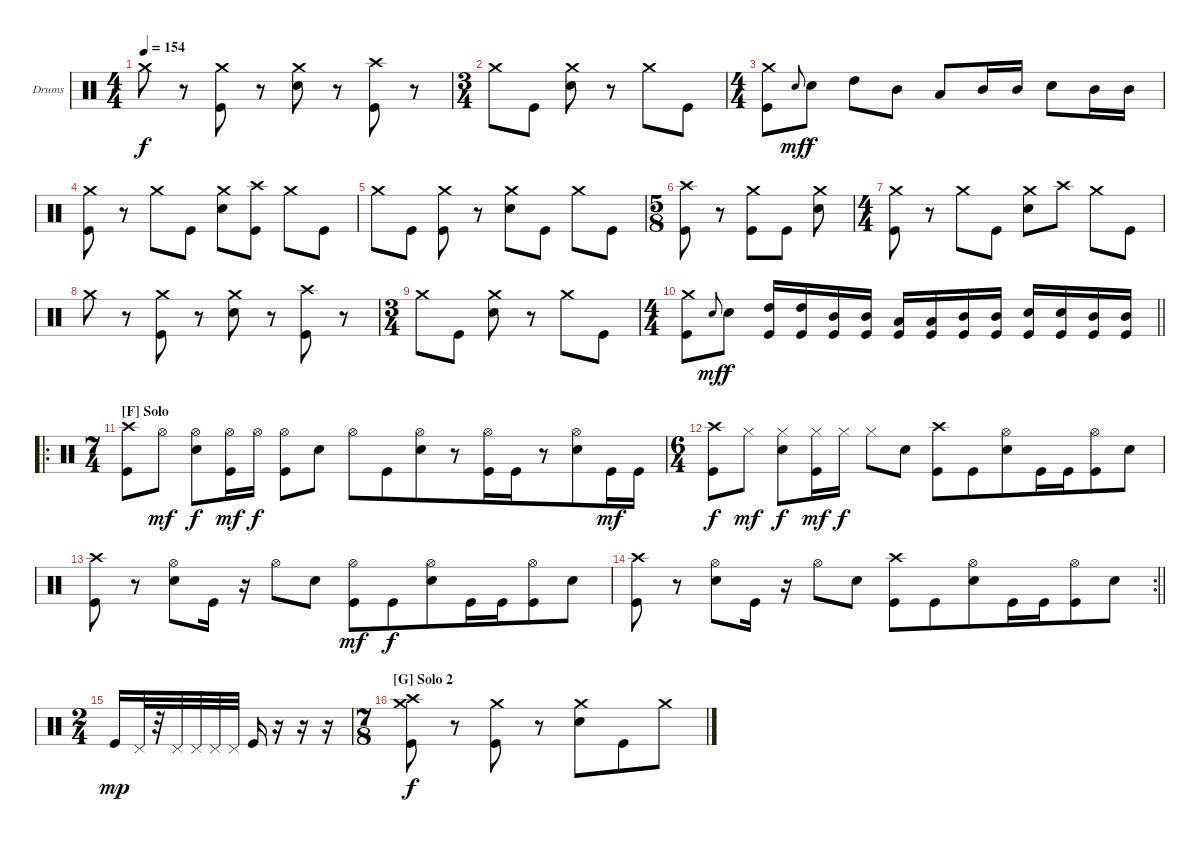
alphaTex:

\bracketExtendMode groupsimilarinstruments
\firstSystemTrackNameOrientation horizontal
\otherSystemsTrackNameOrientation horizontal
\track ("Navene Koperweis" "Drums") {instrument percussion}
\staff {score}
\articulation defaults
\ts (4 4)
\tempo 154
\clef neutral
\ks c "Crash medium (hit)".8{dy f}
r.8 ("Crash medium (hit)" "Kick (hit)").8 r.8 ("Crash medium (hit)" "Snare (hit) 2").8 r.8 ("Crash high (hit)" "Kick (hit)").8 r.8 |
\ts (3 4)
\beaming (8 2 2 2 2)
"Crash medium (hit)".8 "Kick (hit)".8 ("Crash medium (hit)" "Snare (hit) 2").8 r.8 "Crash medium (hit)".8 "Kick (hit)".8 |
\ts (4 4)
\beaming (8 2 2 2 2)
("Crash medium (hit)" "Kick (hit)").8 "Snare (hit) 2".8{gr onbeat dy mf} "Snare (hit) 2".8{dy f} "High Tom (hit)".8 "Mid Tom (hit)".8 "Low Tom (hit)".8 "Mid Tom (hit)".16 "Mid Tom (hit)".16 "Snare (hit) 2".8 "Mid Tom (hit)".16 "Mid Tom (hit)".16 |
("Crash medium (hit)" "Kick (hit)").8 r.8 "Crash medium (hit)".8 "Kick (hit)".8 ("Crash medium (hit)" "Snare (hit) 2").8 ("Crash high (hit)" "Kick (hit)").8 "Crash medium (hit)".8 "Kick (hit)".8 |
"Crash medium (hit)".8 "Kick (hit)".8 ("Crash medium (hit)" "Kick (hit)").8 r.8 ("Crash medium (hit)" "Snare (hit) 2").8 "Kick (hit)".8 "Crash medium (hit)".8 "Kick (hit)".8 |
\ts (5 8)
\beaming (8 2 2 2 2)
("Crash high (hit)" "Kick (hit)").8 r.8 ("Crash medium (hit)" "Kick (hit)").8 "Kick (hit)".8 ("Crash medium (hit)" "Snare (hit) 2").8 |
\ts (4 4)
\beaming (8 2 2 2 2)
("Crash medium (hit)" "Kick (hit)").8 r.8 "Crash medium (hit)".8 "Kick (hit)".8 ("Crash medium (hit)" "Snare (hit) 2").8 "Crash high (hit)".8 "Crash medium (hit)".8 "Kick (hit)".8 |
"Crash medium (hit)".8 r.8 ("Crash medium (hit)" "Kick (hit)").8 r.8 ("Crash medium (hit)" "Snare (hit) 2").8 r.8 ("Crash high (hit)" "Kick (hit)").8 r.8 |
\ts (3 4)
\beaming (8 2 2 2 2)
"Crash medium (hit)".8 "Kick (hit)".8 ("Crash medium (hit)" "Snare (hit) 2").8 r.8 "Crash medium (hit)".8 "Kick (hit)".8 |
\ts (4 4)
\beaming (8 2 2 2 2)
\barLineRight lightlight
("Crash medium (hit)" "Kick (hit)").8 "Snare (hit) 2".8{gr onbeat dy mf} "Snare (hit) 2".8{dy f} ("High Tom (hit)" "Kick (hit)").16 ("High Tom (hit)" "Kick (hit)").16 ("Mid Tom (hit)" "Kick (hit)").16 ("Mid Tom (hit)" "Kick (hit)").16 ("Low Tom (hit)" "Kick (hit)").16 ("Low Tom (hit)" "Kick (hit)").16 ("Mid Tom (hit)" "Kick (hit)").16 ("Mid Tom (hit)" "Kick (hit)").16 ("Snare (hit) 2" "Kick (hit)").16 ("Snare (hit) 2" "Kick (hit)").16 ("Mid Tom (hit)" "Kick (hit)").16 ("Mid Tom (hit)" "Kick (hit)").16 |
\ro
\ts (7 4)
\beaming (8 2 2 2 8)
\section ("F" "Solo")
("Crash high (hit)" "Kick (hit)").8 "Hi-Hat (open)".8{dy mf} ("Hi-Hat (open)" "Snare (hit) 2").8{dy f} ("Hi-Hat (open)" "Kick (hit)").16{dy mf} "Hi-Hat (open)".16{dy f} ("Hi-Hat (open)" "Kick (hit)").8 "Snare (hit) 2".8 "Hi-Hat (open)".8 "Kick (hit)".8 ("Hi-Hat (open)" "Snare (hit) 2").8 r.8 ("Hi-Hat (open)" "Kick (hit)").16 "Kick (hit)".16 r.8 ("Hi-Hat (open)" "Snare (hit) 2").8 "Kick (hit)".16{dy mf} "Kick (hit)".16 |
\ts (6 4)
\beaming (8 2 2 2 6)
("Crash high (hit)" "Kick (hit)").8{dy f} "Hi-Hat (closed)".8{dy mf} ("Hi-Hat (closed)" "Snare (hit) 2").8{dy f} ("Hi-Hat (closed)" "Kick (hit)").16{dy mf} "Hi-Hat (closed)".16{dy f} "Hi-Hat (closed)".8 "Snare (hit) 2".8 ("Crash high (hit)" "Kick (hit)").8 "Kick (hit)".8 ("Hi-Hat (open)" "Snare (hit) 2").8 "Kick (hit)".16 "Kick (hit)".16 ("Hi-Hat (open)" "Kick (hit)").8 "Snare (hit) 2".8 |
("Crash high (hit)" "Kick (hit)").8 r.8 ("Hi-Hat (open)" "Snare (hit) 2").8 "Kick (hit)".16 r.16 "Hi-Hat (open)".8 "Snare (hit) 2".8 ("Hi-Hat (open)" "Kick (hit)").8{dy mf} "Kick (hit)".8{dy f} ("Hi-Hat (open)" "Snare (hit) 2").8 "Kick (hit)".16 "Kick (hit)".16 ("Hi-Hat (open)" "Kick (hit)").8 "Snare (hit) 2".8 |
\rc 2
\barLineRight lightlight
("Crash high (hit)" "Kick (hit)").8 r.8 ("Hi-Hat (open)" "Snare (hit) 2").8 "Kick (hit)".16 r.16 "Hi-Hat (open)".8 "Snare (hit) 2".8 ("Crash high (hit)" "Kick (hit)").8 "Kick (hit)".8 ("Hi-Hat (open)" "Snare (hit) 2").8 "Kick (hit)".16 "Kick (hit)".16 ("Hi-Hat (open)" "Kick (hit)").8 "Snare (hit) 2".8 |
\ts (2 4)
\beaming (8 2 2)
"Kick (hit)".16{dy mp} "Pedal Hi-Hat (hit)".32 r.32 "Pedal Hi-Hat (hit)".32 "Pedal Hi-Hat (hit)".32 "Pedal Hi-Hat (hit)".32 "Pedal Hi-Hat (hit)".32 "Kick (hit)".16 r.16 r.16 r.16 |
\ts (7 8)
\beaming (8 2 2 3)
\section ("G" "Solo 2")
("Crash medium (hit)" "Crash high (hit)" "Kick (hit)").8{dy f} r.8 ("Crash medium (hit)" "Kick (hit)").8 r.8 ("Crash medium (hit)" "Snare (hit) 2").8 "Kick (hit)".8 "Crash medium (hit)".8
